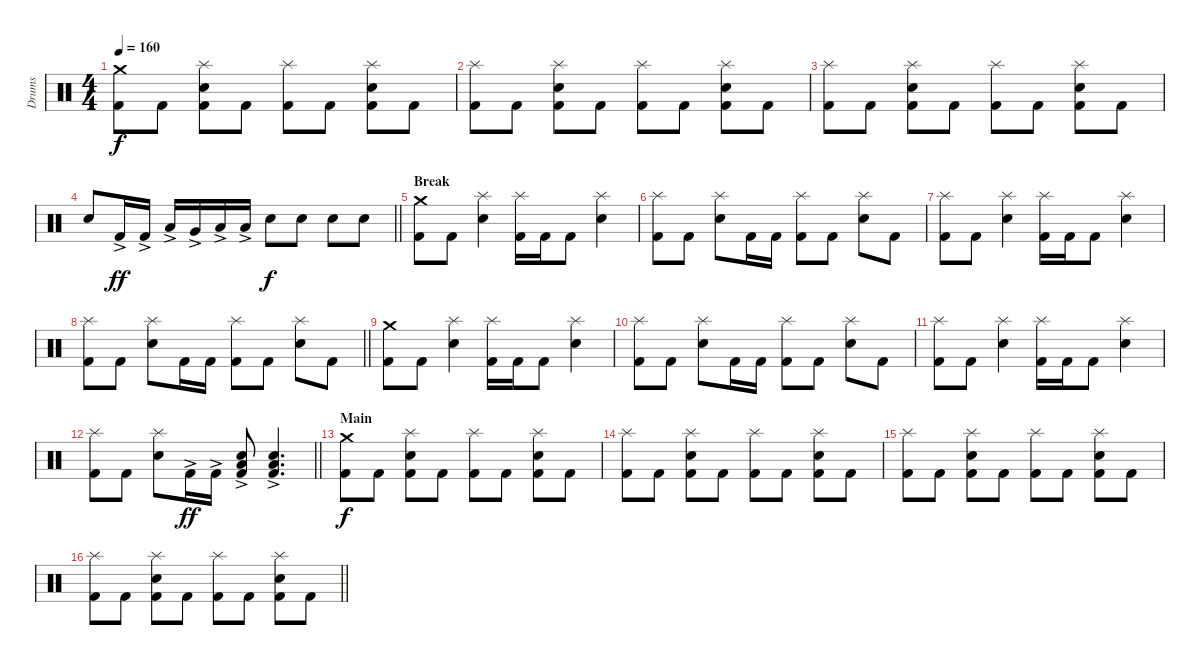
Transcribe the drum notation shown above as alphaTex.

\track ("Drums" "Drums") {instrument percussion}
\staff {score}
\articulation defaults
\ts (4 4)
\section ("" "")
\tempo 160
\clef neutral
\ks c
("Kick (hit) 2" "Crash medium (hit)").8{dy f} "Kick (hit) 2".8 ("Kick (hit) 2" "Snare (hit) 2" "Splash (hit)").8 "Kick (hit) 2".8 ("Kick (hit) 2" "Splash (hit)").8 "Kick (hit) 2".8 ("Kick (hit) 2" "Snare (hit) 2" "Splash (hit)").8 "Kick (hit) 2".8 |
("Kick (hit) 2" "Splash (hit)").8 "Kick (hit) 2".8 ("Kick (hit) 2" "Snare (hit) 2" "Splash (hit)").8 "Kick (hit) 2".8 ("Kick (hit) 2" "Splash (hit)").8 "Kick (hit) 2".8 ("Kick (hit) 2" "Snare (hit) 2" "Splash (hit)").8 "Kick (hit) 2".8 |
("Kick (hit) 2" "Splash (hit)").8 "Kick (hit) 2".8 ("Kick (hit) 2" "Snare (hit) 2" "Splash (hit)").8 "Kick (hit) 2".8 ("Kick (hit) 2" "Splash (hit)").8 "Kick (hit) 2".8 ("Kick (hit) 2" "Snare (hit) 2" "Splash (hit)").8 "Kick (hit) 2".8 |
\barLineRight lightlight "Snare (hit) 2".8 "Kick (hit) 2"{ac}.16{dy ff} "Kick (hit) 2"{ac}.16 "Low Tom (hit)"{ac}.16 "Very Low Tom (hit)"{ac}.16 "Low Floor Tom (hit)"{ac}.16 "Low Floor Tom (hit)"{ac}.16 "Snare (hit) 2".8{dy f} "Snare (hit) 2".8 "Snare (hit) 2".8 "Snare (hit) 2".8
|
\section ("" "Break")
("Kick (hit) 2" "Crash medium (hit)").8 "Kick (hit) 2".8 ("Snare (hit) 2" "Splash (hit)").4 ("Kick (hit) 2" "Splash (hit)").16 "Kick (hit) 2".16 "Kick (hit) 2".8 ("Snare (hit) 2" "Splash (hit)").4 |
("Kick (hit) 2" "Splash (hit)").8 "Kick (hit) 2".8 ("Snare (hit) 2" "Splash (hit)").8 "Kick (hit) 2".16 "Kick (hit) 2".16 ("Kick (hit) 2" "Splash (hit)").8 "Kick (hit) 2".8 ("Snare (hit) 2" "Splash (hit)").8 "Kick (hit) 2".8 |
("Kick (hit) 2" "Splash (hit)").8 "Kick (hit) 2".8 ("Snare (hit) 2" "Splash (hit)").4 ("Kick (hit) 2" "Splash (hit)").16 "Kick (hit) 2".16 "Kick (hit) 2".8 ("Snare (hit) 2" "Splash (hit)").4 |
\barLineRight lightlight
("Kick (hit) 2" "Splash (hit)").8 "Kick (hit) 2".8 ("Snare (hit) 2" "Splash (hit)").8 "Kick (hit) 2".16 "Kick (hit) 2".16 ("Kick (hit) 2" "Splash (hit)").8 "Kick (hit) 2".8 ("Snare (hit) 2" "Splash (hit)").8 "Kick (hit) 2".8 |
\section ("" "")
("Kick (hit) 2" "Crash medium (hit)").8 "Kick (hit) 2".8 ("Snare (hit) 2" "Splash (hit)").4 ("Kick (hit) 2" "Splash (hit)").16 "Kick (hit) 2".16 "Kick (hit) 2".8 ("Snare (hit) 2" "Splash (hit)").4 |
("Kick (hit) 2" "Splash (hit)").8 "Kick (hit) 2".8 ("Snare (hit) 2" "Splash (hit)").8 "Kick (hit) 2".16 "Kick (hit) 2".16 ("Kick (hit) 2" "Splash (hit)").8 "Kick (hit) 2".8 ("Snare (hit) 2" "Splash (hit)").8 "Kick (hit) 2".8 |
("Kick (hit) 2" "Splash (hit)").8 "Kick (hit) 2".8 ("Snare (hit) 2" "Splash (hit)").4 ("Kick (hit) 2" "Splash (hit)").16 "Kick (hit) 2".16 "Kick (hit) 2".8 ("Snare (hit) 2" "Splash (hit)").4 |
\barLineRight lightlight
("Kick (hit) 2" "Splash (hit)").8 "Kick (hit) 2".8 ("Snare (hit) 2" "Splash (hit)").8 "Kick (hit) 2"{ac}.16{dy ff} "Kick (hit) 2"{ac}.16 ("Kick (hit) 2" "Snare (hit) 2" "Low Floor Tom (hit)"{ac}).8 ("Kick (hit) 2" "Snare (hit) 2" "Low Floor Tom (hit)"{ac}).4{d} |
\section ("" "Main")
("Kick (hit) 2" "Crash medium (hit)").8{dy f} "Kick (hit) 2".8 ("Kick (hit) 2" "Snare (hit) 2" "Splash (hit)").8 "Kick (hit) 2".8 ("Kick (hit) 2" "Splash (hit)").8 "Kick (hit) 2".8 ("Kick (hit) 2" "Snare (hit) 2" "Splash (hit)").8 "Kick (hit) 2".8 |
("Kick (hit) 2" "Splash (hit)").8 "Kick (hit) 2".8 ("Kick (hit) 2" "Snare (hit) 2" "Splash (hit)").8 "Kick (hit) 2".8 ("Kick (hit) 2" "Splash (hit)").8 "Kick (hit) 2".8 ("Kick (hit) 2" "Snare (hit) 2" "Splash (hit)").8 "Kick (hit) 2".8 |
("Kick (hit) 2" "Splash (hit)").8 "Kick (hit) 2".8 ("Kick (hit) 2" "Snare (hit) 2" "Splash (hit)").8 "Kick (hit) 2".8 ("Kick (hit) 2" "Splash (hit)").8 "Kick (hit) 2".8 ("Kick (hit) 2" "Snare (hit) 2" "Splash (hit)").8 "Kick (hit) 2".8 |
\barLineRight lightlight
("Kick (hit) 2" "Splash (hit)").8 "Kick (hit) 2".8 ("Kick (hit) 2" "Snare (hit) 2" "Splash (hit)").8 "Kick (hit) 2".8 ("Kick (hit) 2" "Splash (hit)").8 "Kick (hit) 2".8 ("Kick (hit) 2" "Snare (hit) 2" "Splash (hit)").8 "Kick (hit) 2".8
